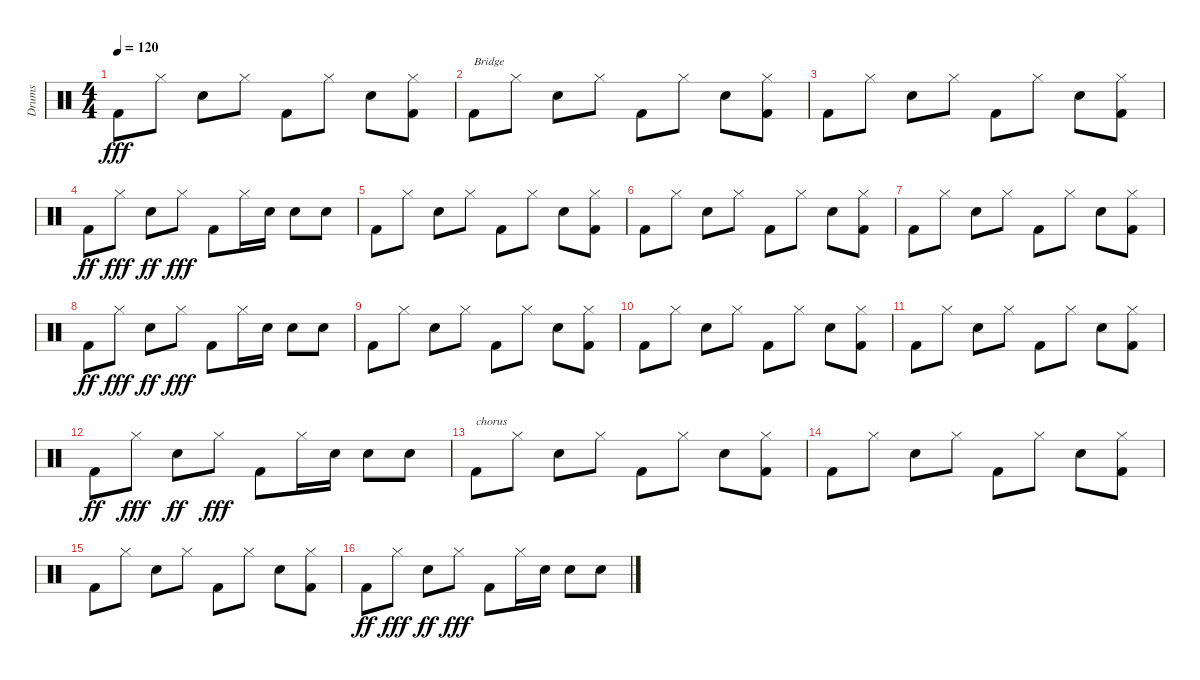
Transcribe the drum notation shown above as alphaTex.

\track ("Drums" "Drums") {instrument percussion}
\staff {score}
\articulation defaults
\ts (4 4)
\tempo 120
\clef neutral
\ks c "Kick (hit) 2".8{dy fff} "Hi-Hat (closed)".8 "Snare (hit) 2".8 "Hi-Hat (closed)".8 "Kick (hit) 2".8 "Hi-Hat (closed)".8 "Snare (hit) 2".8
("Hi-Hat (closed)" "Kick (hit) 2").8 |
"Kick (hit) 2".8{txt "Bridge"} "Hi-Hat (closed)".8 "Snare (hit) 2".8 "Hi-Hat (closed)".8 "Kick (hit) 2".8 "Hi-Hat (closed)".8 "Snare (hit) 2".8 ("Hi-Hat (closed)" "Kick (hit) 2").8 |
"Kick (hit) 2".8 "Hi-Hat (closed)".8 "Snare (hit) 2".8 "Hi-Hat (closed)".8 "Kick (hit) 2".8 "Hi-Hat (closed)".8 "Snare (hit) 2".8 ("Hi-Hat (closed)" "Kick (hit) 2").8 |
"Kick (hit) 2".8{dy ff} "Hi-Hat (closed)".8{dy fff} "Snare (hit) 2".8{dy ff} "Hi-Hat (closed)".8{dy fff} "Kick (hit) 2".8 "Hi-Hat (closed)".16 "Snare (hit) 2".16 "Snare (hit) 2".8 "Snare (hit) 2".8 |
"Kick (hit) 2".8 "Hi-Hat (closed)".8 "Snare (hit) 2".8 "Hi-Hat (closed)".8 "Kick (hit) 2".8 "Hi-Hat (closed)".8 "Snare (hit) 2".8 ("Hi-Hat (closed)" "Kick (hit) 2").8 |
"Kick (hit) 2".8 "Hi-Hat (closed)".8 "Snare (hit) 2".8 "Hi-Hat (closed)".8 "Kick (hit) 2".8 "Hi-Hat (closed)".8 "Snare (hit) 2".8 ("Hi-Hat (closed)" "Kick (hit) 2").8 |
"Kick (hit) 2".8 "Hi-Hat (closed)".8 "Snare (hit) 2".8 "Hi-Hat (closed)".8 "Kick (hit) 2".8 "Hi-Hat (closed)".8 "Snare (hit) 2".8 ("Hi-Hat (closed)" "Kick (hit) 2").8 |
"Kick (hit) 2".8{dy ff} "Hi-Hat (closed)".8{dy fff} "Snare (hit) 2".8{dy ff} "Hi-Hat (closed)".8{dy fff} "Kick (hit) 2".8 "Hi-Hat (closed)".16 "Snare (hit) 2".16 "Snare (hit) 2".8 "Snare (hit) 2".8 |
"Kick (hit) 2".8 "Hi-Hat (closed)".8 "Snare (hit) 2".8 "Hi-Hat (closed)".8 "Kick (hit) 2".8 "Hi-Hat (closed)".8 "Snare (hit) 2".8 ("Hi-Hat (closed)" "Kick (hit) 2").8 |
"Kick (hit) 2".8 "Hi-Hat (closed)".8 "Snare (hit) 2".8 "Hi-Hat (closed)".8 "Kick (hit) 2".8 "Hi-Hat (closed)".8 "Snare (hit) 2".8 ("Hi-Hat (closed)" "Kick (hit) 2").8 |
"Kick (hit) 2".8 "Hi-Hat (closed)".8 "Snare (hit) 2".8 "Hi-Hat (closed)".8 "Kick (hit) 2".8 "Hi-Hat (closed)".8 "Snare (hit) 2".8 ("Hi-Hat (closed)" "Kick (hit) 2").8 |
"Kick (hit) 2".8{dy ff} "Hi-Hat (closed)".8{dy fff} "Snare (hit) 2".8{dy ff} "Hi-Hat (closed)".8{dy fff} "Kick (hit) 2".8 "Hi-Hat (closed)".16 "Snare (hit) 2".16 "Snare (hit) 2".8 "Snare (hit) 2".8 |
"Kick (hit) 2".8{txt "chorus"} "Hi-Hat (closed)".8 "Snare (hit) 2".8 "Hi-Hat (closed)".8 "Kick (hit) 2".8 "Hi-Hat (closed)".8 "Snare (hit) 2".8 ("Hi-Hat (closed)" "Kick (hit) 2").8 |
"Kick (hit) 2".8 "Hi-Hat (closed)".8 "Snare (hit) 2".8 "Hi-Hat (closed)".8 "Kick (hit) 2".8 "Hi-Hat (closed)".8 "Snare (hit) 2".8 ("Hi-Hat (closed)" "Kick (hit) 2").8 |
"Kick (hit) 2".8 "Hi-Hat (closed)".8 "Snare (hit) 2".8 "Hi-Hat (closed)".8 "Kick (hit) 2".8 "Hi-Hat (closed)".8 "Snare (hit) 2".8 ("Hi-Hat (closed)" "Kick (hit) 2").8 |
"Kick (hit) 2".8{dy ff} "Hi-Hat (closed)".8{dy fff} "Snare (hit) 2".8{dy ff} "Hi-Hat (closed)".8{dy fff} "Kick (hit) 2".8 "Hi-Hat (closed)".16 "Snare (hit) 2".16 "Snare (hit) 2".8 "Snare (hit) 2".8
